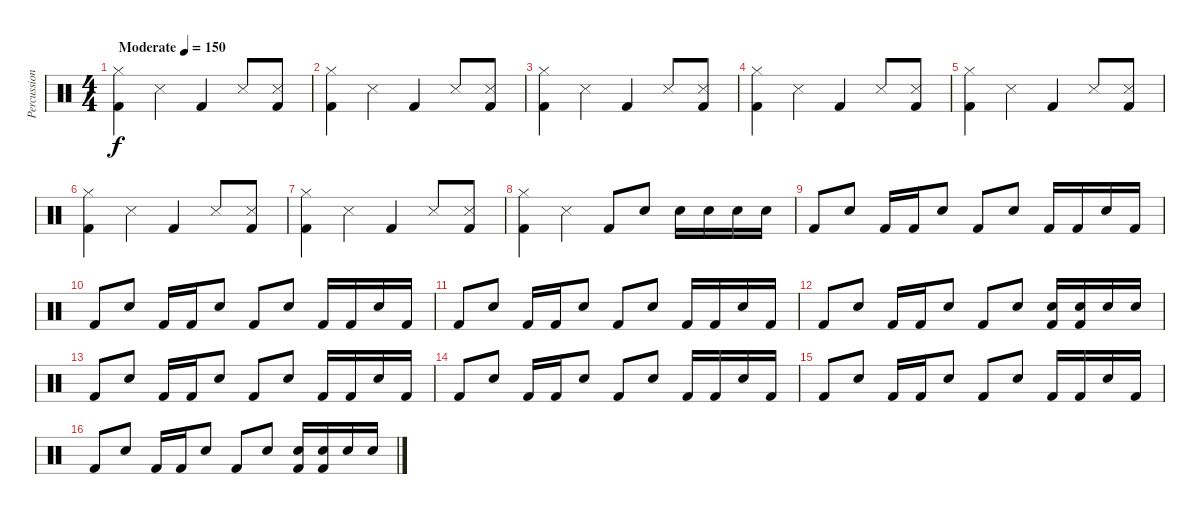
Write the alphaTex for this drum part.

\track ("Percussion" "Percussion") {instrument percussion}
\staff {score}
\articulation defaults
\ts (4 4)
\tempo (150 "Moderate")
\clef neutral
\ks c
("Kick (hit) 2" "Hi-Hat (closed)").4{dy f} "Snare (side stick) 3".4 "Kick (hit) 2".4 "Snare (side stick) 3".8 ("Kick (hit) 2" "Snare (side stick) 3").8 |
("Kick (hit) 2" "Hi-Hat (closed)").4 "Snare (side stick) 3".4 "Kick (hit) 2".4 "Snare (side stick) 3".8 ("Kick (hit) 2" "Snare (side stick) 3").8 |
("Kick (hit) 2" "Hi-Hat (closed)").4 "Snare (side stick) 3".4 "Kick (hit) 2".4 "Snare (side stick) 3".8 ("Kick (hit) 2" "Snare (side stick) 3").8 |
("Kick (hit) 2" "Hi-Hat (closed)").4 "Snare (side stick) 3".4 "Kick (hit) 2".4 "Snare (side stick) 3".8 ("Kick (hit) 2" "Snare (side stick) 3").8 |
("Kick (hit) 2" "Hi-Hat (closed)").4 "Snare (side stick) 3".4 "Kick (hit) 2".4 "Snare (side stick) 3".8 ("Kick (hit) 2" "Snare (side stick) 3").8 |
("Kick (hit) 2" "Hi-Hat (closed)").4 "Snare (side stick) 3".4 "Kick (hit) 2".4 "Snare (side stick) 3".8 ("Kick (hit) 2" "Snare (side stick) 3").8 |
("Kick (hit) 2" "Hi-Hat (closed)").4 "Snare (side stick) 3".4 "Kick (hit) 2".4 "Snare (side stick) 3".8 ("Kick (hit) 2" "Snare (side stick) 3").8 |
("Kick (hit) 2" "Hi-Hat (closed)").4 "Snare (side stick) 3".4 "Kick (hit) 2".8 "Snare (hit) 2".8 "Snare (hit) 2".16 "Snare (hit) 2".16 "Snare (hit) 2".16 "Snare (hit) 2".16 |
"Kick (hit) 2".8 "Snare (hit) 2".8 "Kick (hit) 2".16 "Kick (hit) 2".16 "Snare (hit) 2".8 "Kick (hit) 2".8 "Snare (hit) 2".8 "Kick (hit) 2".16 "Kick (hit) 2".16 "Snare (hit) 2".16 "Kick (hit) 2".16 |
"Kick (hit) 2".8 "Snare (hit) 2".8 "Kick (hit) 2".16 "Kick (hit) 2".16 "Snare (hit) 2".8 "Kick (hit) 2".8 "Snare (hit) 2".8 "Kick (hit) 2".16 "Kick (hit) 2".16 "Snare (hit) 2".16 "Kick (hit) 2".16 |
"Kick (hit) 2".8 "Snare (hit) 2".8 "Kick (hit) 2".16 "Kick (hit) 2".16 "Snare (hit) 2".8 "Kick (hit) 2".8 "Snare (hit) 2".8 "Kick (hit) 2".16 "Kick (hit) 2".16 "Snare (hit) 2".16 "Kick (hit) 2".16 |
"Kick (hit) 2".8 "Snare (hit) 2".8 "Kick (hit) 2".16 "Kick (hit) 2".16 "Snare (hit) 2".8 "Kick (hit) 2".8 "Snare (hit) 2".8 ("Kick (hit) 2" "Snare (hit) 2").16 ("Kick (hit) 2" "Snare (hit) 2").16 "Snare (hit) 2".16 "Snare (hit) 2".16 |
"Kick (hit) 2".8 "Snare (hit) 2".8 "Kick (hit) 2".16 "Kick (hit) 2".16 "Snare (hit) 2".8 "Kick (hit) 2".8 "Snare (hit) 2".8 "Kick (hit) 2".16 "Kick (hit) 2".16 "Snare (hit) 2".16 "Kick (hit) 2".16 |
"Kick (hit) 2".8 "Snare (hit) 2".8 "Kick (hit) 2".16 "Kick (hit) 2".16 "Snare (hit) 2".8 "Kick (hit) 2".8 "Snare (hit) 2".8 "Kick (hit) 2".16 "Kick (hit) 2".16 "Snare (hit) 2".16 "Kick (hit) 2".16 |
"Kick (hit) 2".8 "Snare (hit) 2".8 "Kick (hit) 2".16 "Kick (hit) 2".16 "Snare (hit) 2".8 "Kick (hit) 2".8 "Snare (hit) 2".8 "Kick (hit) 2".16 "Kick (hit) 2".16 "Snare (hit) 2".16 "Kick (hit) 2".16 |
"Kick (hit) 2".8 "Snare (hit) 2".8 "Kick (hit) 2".16 "Kick (hit) 2".16 "Snare (hit) 2".8 "Kick (hit) 2".8 "Snare (hit) 2".8 ("Kick (hit) 2" "Snare (hit) 2").16 ("Kick (hit) 2" "Snare (hit) 2").16 "Snare (hit) 2".16 "Snare (hit) 2".16
